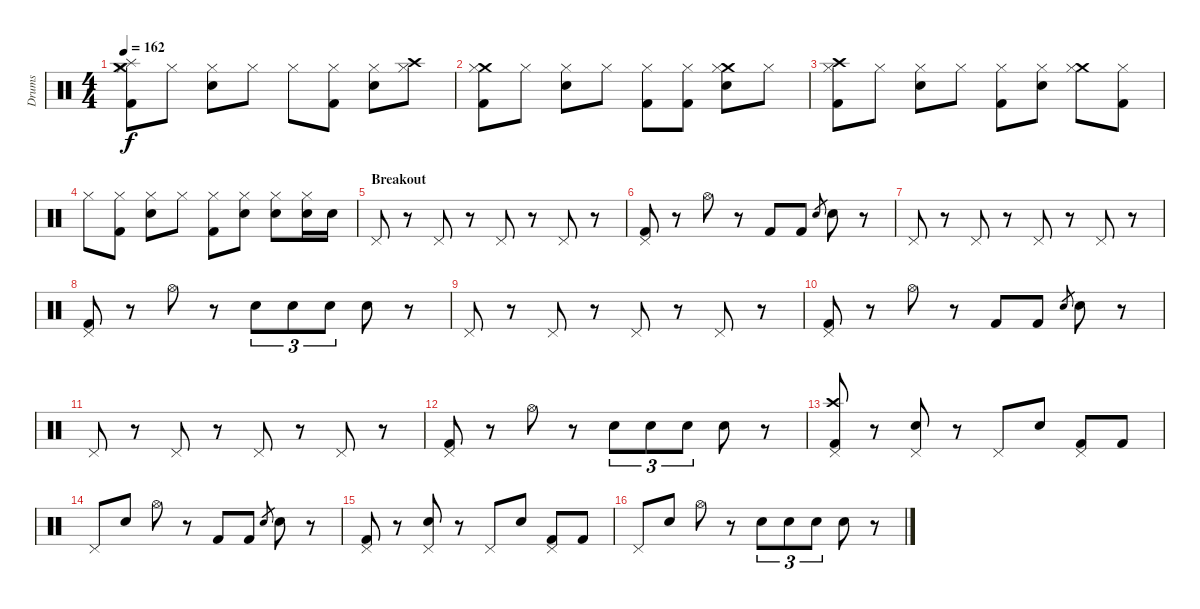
\track ("Drums" "Drums") {instrument percussion}
\staff {score}
\articulation defaults
\ts (4 4)
\tempo 162
\clef neutral
\ks c
("Crash medium (hit)" "Hi-Hat (closed)" "Splash (hit)" "Kick (hit) 2").8{dy f} "Hi-Hat (closed)".8 ("Hi-Hat (closed)" "Electric Snare (hit)").8 "Hi-Hat (closed)".8 "Hi-Hat (closed)".8 ("Hi-Hat (closed)" "Kick (hit) 2").8 ("Hi-Hat (closed)" "Electric Snare (hit)").8 ("Crash high (hit)" "Hi-Hat (closed)").8 |
("Crash medium (hit)" "Hi-Hat (closed)" "Kick (hit) 2").8 "Hi-Hat (closed)".8 ("Hi-Hat (closed)" "Electric Snare (hit)").8 "Hi-Hat (closed)".8 ("Hi-Hat (closed)" "Kick (hit) 2").8 ("Hi-Hat (closed)" "Kick (hit) 2").8 ("Crash medium (hit)" "Hi-Hat (closed)" "Electric Snare (hit)").8 "Hi-Hat (closed)".8 |
("Crash high (hit)" "Hi-Hat (closed)" "Kick (hit) 2").8 "Hi-Hat (closed)".8 ("Hi-Hat (closed)" "Electric Snare (hit)").8 "Hi-Hat (closed)".8 ("Hi-Hat (closed)" "Kick (hit) 2").8 ("Hi-Hat (closed)" "Electric Snare (hit)").8 ("Crash medium (hit)" "Hi-Hat (closed)").8 ("Hi-Hat (closed)" "Kick (hit) 2").8 |
"Hi-Hat (closed)".8 ("Hi-Hat (closed)" "Kick (hit) 2").8 ("Hi-Hat (closed)" "Electric Snare (hit)").8 "Hi-Hat (closed)".8 ("Hi-Hat (closed)" "Kick (hit) 2").8 ("Hi-Hat (closed)" "Electric Snare (hit)").8 ("Hi-Hat (closed)" "Electric Snare (hit)").8 ("Hi-Hat (closed)" "Electric Snare (hit)").16 "Electric Snare (hit)".16 |
\section ("" "Breakout")
"Pedal Hi-Hat (hit)".8 r.8 "Pedal Hi-Hat (hit)".8 r.8 "Pedal Hi-Hat (hit)".8 r.8 "Pedal Hi-Hat (hit)".8 r.8 |
("Pedal Hi-Hat (hit)" "Kick (hit) 2").8 r.8 "Hi-Hat (open)".8 r.8 "Kick (hit) 2".8 "Kick (hit) 2".8 "Electric Snare (hit)".8{gr} "Electric Snare (hit)".8 r.8 |
"Pedal Hi-Hat (hit)".8 r.8 "Pedal Hi-Hat (hit)".8 r.8 "Pedal Hi-Hat (hit)".8 r.8 "Pedal Hi-Hat (hit)".8 r.8 |
("Pedal Hi-Hat (hit)" "Kick (hit) 2").8 r.8 "Hi-Hat (open)".8 r.8 "Electric Snare (hit)".8{tu (3 2)} "Electric Snare (hit)".8{tu (3 2)} "Electric Snare (hit)".8{tu (3 2)} "Electric Snare (hit)".8 r.8 |
"Pedal Hi-Hat (hit)".8 r.8 "Pedal Hi-Hat (hit)".8 r.8 "Pedal Hi-Hat (hit)".8 r.8 "Pedal Hi-Hat (hit)".8 r.8 |
("Pedal Hi-Hat (hit)" "Kick (hit) 2").8 r.8 "Hi-Hat (open)".8 r.8 "Kick (hit) 2".8 "Kick (hit) 2".8 "Electric Snare (hit)".8{gr} "Electric Snare (hit)".8 r.8 |
"Pedal Hi-Hat (hit)".8 r.8 "Pedal Hi-Hat (hit)".8 r.8 "Pedal Hi-Hat (hit)".8 r.8 "Pedal Hi-Hat (hit)".8 r.8 |
("Pedal Hi-Hat (hit)" "Kick (hit) 2").8 r.8 "Hi-Hat (open)".8 r.8 "Electric Snare (hit)".8{tu (3 2)} "Electric Snare (hit)".8{tu (3 2)} "Electric Snare (hit)".8{tu (3 2)} "Electric Snare (hit)".8 r.8 |
("Crash high (hit)" "Pedal Hi-Hat (hit)" "Kick (hit) 2").8 r.8 ("Pedal Hi-Hat (hit)" "Electric Snare (hit)").8 r.8 "Pedal Hi-Hat (hit)".8 "Electric Snare (hit)".8 ("Pedal Hi-Hat (hit)" "Kick (hit) 2").8 "Kick (hit) 2".8 |
"Pedal Hi-Hat (hit)".8 "Electric Snare (hit)".8 "Hi-Hat (open)".8 r.8 "Kick (hit) 2".8 "Kick (hit) 2".8 "Electric Snare (hit)".8{gr} "Electric Snare (hit)".8 r.8 |
("Pedal Hi-Hat (hit)" "Kick (hit) 2").8 r.8 ("Pedal Hi-Hat (hit)" "Electric Snare (hit)").8 r.8 "Pedal Hi-Hat (hit)".8 "Electric Snare (hit)".8 ("Pedal Hi-Hat (hit)" "Kick (hit) 2").8 "Kick (hit) 2".8 |
"Pedal Hi-Hat (hit)".8 "Electric Snare (hit)".8 "Hi-Hat (open)".8 r.8 "Electric Snare (hit)".8{tu (3 2)} "Electric Snare (hit)".8{tu (3 2)} "Electric Snare (hit)".8{tu (3 2)} "Electric Snare (hit)".8 r.8
